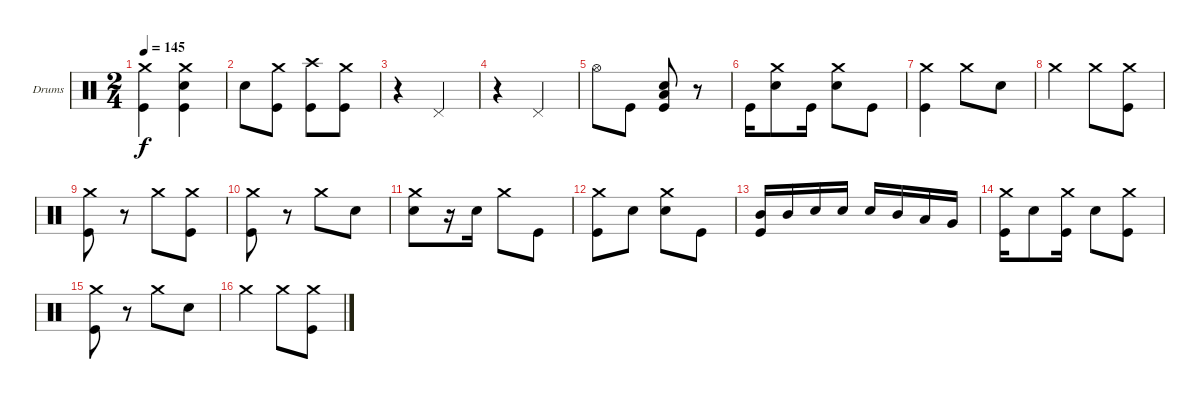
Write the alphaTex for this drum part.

\bracketExtendMode groupsimilarinstruments
\firstSystemTrackNameOrientation horizontal
\otherSystemsTrackNameOrientation horizontal
\track ("Drumkit" "Drums") {instrument percussion}
\staff {score}
\articulation defaults
\ts (2 4)
\tempo 145
\clef neutral
\ks c
("Crash medium (hit)" "Kick (hit)").4{dy f} ("Crash medium (hit)" "Snare (hit) 2" "Kick (hit)").4 |
"Snare (hit) 2".8 ("Kick (hit)" "Crash medium (hit)").8 ("Kick (hit)" "Crash high (hit)").8 ("Kick (hit)" "Crash medium (hit)").8 |
r.4 "Pedal Hi-Hat (hit)".4 |
r.4 "Pedal Hi-Hat (hit)".4 |
"Hi-Hat (open)".8 "Kick (hit)".8 ("Snare (hit) 2" "Kick (hit)" "Low Tom (hit)").8 r.8 |
"Kick (hit)".16 ("Snare (hit) 2" "Crash medium (hit)").8 "Kick (hit)".16 ("Snare (hit) 2" "Crash medium (hit)").8 "Kick (hit)".8 |
("Kick (hit)" "Crash medium (hit)").4 "Crash medium (hit)".8 "Snare (hit) 2".8 |
"Crash medium (hit)".4 "Crash medium (hit)".8 ("Kick (hit)" "Crash medium (hit)").8 |
("Kick (hit)" "Crash medium (hit)").8 r.8 "Crash medium (hit)".8 ("Kick (hit)" "Crash medium (hit)").8 |
("Kick (hit)" "Crash medium (hit)").8 r.8 "Crash medium (hit)".8 "Snare (hit) 2".8 |
("Snare (hit) 2" "Crash medium (hit)").8 r.16 "Snare (hit) 2".16 "Crash medium (hit)".8 "Kick (hit)".8 |
("Kick (hit)" "Crash medium (hit)").8 "Snare (hit) 2".8 ("Snare (hit) 2" "Crash medium (hit)").8 "Kick (hit)".8 |
("Kick (hit)" "Mid Tom (hit)").16 "Mid Tom (hit)".16 "Snare (hit) 2".16 "Snare (hit) 2".16 "Snare (hit) 2".16 "Mid Tom (hit)".16 "Low Tom (hit)".16 "Very Low Tom (hit)".16 |
("Kick (hit)" "Crash medium (hit)").16 "Snare (hit) 2".8 ("Kick (hit)" "Crash medium (hit)").16 "Snare (hit) 2".8 ("Kick (hit)" "Crash medium (hit)").8 |
("Kick (hit)" "Crash medium (hit)").8 r.8 "Crash medium (hit)".8 "Snare (hit) 2".8 |
"Crash medium (hit)".4 "Crash medium (hit)".8 ("Kick (hit)" "Crash medium (hit)").8
